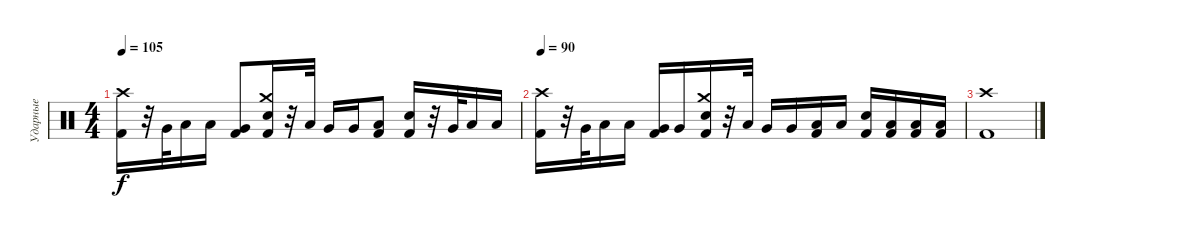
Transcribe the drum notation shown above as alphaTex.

\track ("Ударные" "Ударные") {instrument percussion}
\staff {score}
\articulation defaults
\ts (4 4)
\tempo 105
\clef neutral
\ks c
("Crash high (hit)" "Kick (hit) 2").16{dy f} r.32 "Very Low Tom (hit)".32 "Low Floor Tom (hit)".16 "Low Tom (hit)".16 ("Very Low Tom (hit)" "Kick (hit) 2").8 ("Crash medium (hit)" "Electric Snare (hit)" "Kick (hit) 2").16 r.32 "Low Tom (hit)".32 "Very Low Tom (hit)".16 "Very Low Tom (hit)".16 ("Low Floor Tom (hit)" "Kick (hit) 2").8 ("Electric Snare (hit)" "Kick (hit) 2").16 r.32 "Very Low Tom (hit)".32 "Low Floor Tom (hit)".16 "Low Tom (hit)".16 |
\tempo 90
("Crash high (hit)" "Kick (hit) 2").16 r.32 "Very Low Tom (hit)".32 "Low Floor Tom (hit)".16 "Low Tom (hit)".16 ("Very Low Tom (hit)" "Kick (hit) 2").16 "Very Low Tom (hit)".16 ("Crash medium (hit)" "Electric Snare (hit)" "Kick (hit) 2").16 r.32 "Low Tom (hit)".32 "Very Low Tom (hit)".16 "Very Low Tom (hit)".16 ("Low Floor Tom (hit)" "Kick (hit) 2").16 "Low Floor Tom (hit)".16 ("Electric Snare (hit)" "Kick (hit) 2").16 ("Low Floor Tom (hit)" "Kick (hit) 2").16 ("Low Floor Tom (hit)" "Kick (hit) 2").16 ("Low Tom (hit)" "Kick (hit) 2").16 |
("Crash high (hit)" "Kick (hit) 2").1
